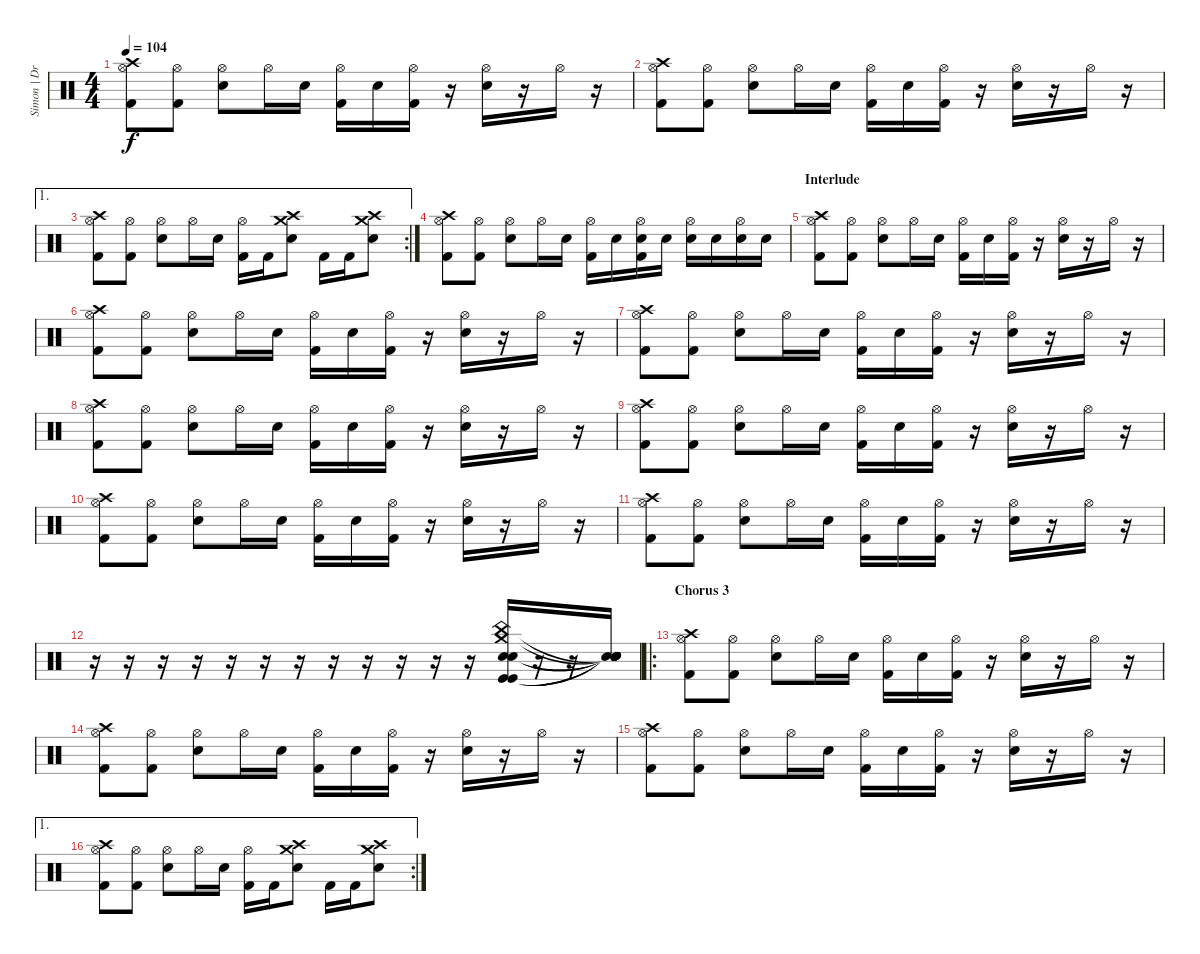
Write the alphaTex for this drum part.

\track ("Simon | Drums" "Simon | Dr") {instrument percussion}
\staff {score}
\articulation defaults
\ts (4 4)
\tempo 104
\clef neutral
\ks c
("Crash high (hit)" "Hi-Hat (open)" "Kick (hit) 2").8{dy f} ("Hi-Hat (open)" "Kick (hit) 2").8 ("Hi-Hat (open)" "Electric Snare (hit)").8 "Hi-Hat (open)".16 "Electric Snare (hit)".16 ("Hi-Hat (open)" "Kick (hit) 2").16 "Electric Snare (hit)".16 ("Hi-Hat (open)" "Kick (hit) 2").16 r.16 ("Hi-Hat (open)" "Electric Snare (hit)").16 r.16 "Hi-Hat (open)".16 r.16 |
("Crash high (hit)" "Hi-Hat (open)" "Kick (hit) 2").8 ("Hi-Hat (open)" "Kick (hit) 2").8 ("Hi-Hat (open)" "Electric Snare (hit)").8 "Hi-Hat (open)".16 "Electric Snare (hit)".16 ("Hi-Hat (open)" "Kick (hit) 2").16 "Electric Snare (hit)".16 ("Hi-Hat (open)" "Kick (hit) 2").16 r.16 ("Hi-Hat (open)" "Electric Snare (hit)").16 r.16 "Hi-Hat (open)".16 r.16 |
\ae 1
\rc 2
("Crash high (hit)" "Hi-Hat (open)" "Kick (hit) 2").8 ("Hi-Hat (open)" "Kick (hit) 2").8 ("Hi-Hat (open)" "Electric Snare (hit)").8 "Hi-Hat (open)".16 "Electric Snare (hit)".16 ("Hi-Hat (open)" "Kick (hit) 2").16 "Kick (hit) 2".16 ("Crash high (hit)" "Crash medium (hit)" "Electric Snare (hit)").8 "Kick (hit) 2".16 "Kick (hit) 2".16 ("Crash high (hit)" "Crash medium (hit)" "Electric Snare (hit)").8 |
("Crash high (hit)" "Hi-Hat (open)" "Kick (hit) 2").8 ("Hi-Hat (open)" "Kick (hit) 2").8 ("Hi-Hat (open)" "Electric Snare (hit)").8 "Hi-Hat (open)".16 "Electric Snare (hit)".16 ("Hi-Hat (open)" "Kick (hit) 2").16 "Electric Snare (hit)".16 ("Hi-Hat (open)" "Electric Snare (hit)" "Kick (hit) 2").16 "Electric Snare (hit)".16 ("Hi-Hat (open)" "Electric Snare (hit)").16 "Electric Snare (hit)".16 ("Hi-Hat (open)" "Electric Snare (hit)").16 "Electric Snare (hit)".16 |
\section ("" "Interlude")
("Crash high (hit)" "Hi-Hat (open)" "Kick (hit) 2").8 ("Hi-Hat (open)" "Kick (hit) 2").8 ("Hi-Hat (open)" "Electric Snare (hit)").8 "Hi-Hat (open)".16 "Electric Snare (hit)".16 ("Hi-Hat (open)" "Kick (hit) 2").16 "Electric Snare (hit)".16 ("Hi-Hat (open)" "Kick (hit) 2").16 r.16 ("Hi-Hat (open)" "Electric Snare (hit)").16 r.16 "Hi-Hat (open)".16 r.16 |
("Crash high (hit)" "Hi-Hat (open)" "Kick (hit) 2").8 ("Hi-Hat (open)" "Kick (hit) 2").8 ("Hi-Hat (open)" "Electric Snare (hit)").8 "Hi-Hat (open)".16 "Electric Snare (hit)".16 ("Hi-Hat (open)" "Kick (hit) 2").16 "Electric Snare (hit)".16 ("Hi-Hat (open)" "Kick (hit) 2").16 r.16 ("Hi-Hat (open)" "Electric Snare (hit)").16 r.16 "Hi-Hat (open)".16 r.16 |
("Crash high (hit)" "Hi-Hat (open)" "Kick (hit) 2").8 ("Hi-Hat (open)" "Kick (hit) 2").8 ("Hi-Hat (open)" "Electric Snare (hit)").8 "Hi-Hat (open)".16 "Electric Snare (hit)".16 ("Hi-Hat (open)" "Kick (hit) 2").16 "Electric Snare (hit)".16 ("Hi-Hat (open)" "Kick (hit) 2").16 r.16 ("Hi-Hat (open)" "Electric Snare (hit)").16 r.16 "Hi-Hat (open)".16 r.16 |
("Crash high (hit)" "Hi-Hat (open)" "Kick (hit) 2").8 ("Hi-Hat (open)" "Kick (hit) 2").8 ("Hi-Hat (open)" "Electric Snare (hit)").8 "Hi-Hat (open)".16 "Electric Snare (hit)".16 ("Hi-Hat (open)" "Kick (hit) 2").16 "Electric Snare (hit)".16 ("Hi-Hat (open)" "Kick (hit) 2").16 r.16 ("Hi-Hat (open)" "Electric Snare (hit)").16 r.16 "Hi-Hat (open)".16 r.16 |
("Crash high (hit)" "Hi-Hat (open)" "Kick (hit) 2").8 ("Hi-Hat (open)" "Kick (hit) 2").8 ("Hi-Hat (open)" "Electric Snare (hit)").8 "Hi-Hat (open)".16 "Electric Snare (hit)".16 ("Hi-Hat (open)" "Kick (hit) 2").16 "Electric Snare (hit)".16 ("Hi-Hat (open)" "Kick (hit) 2").16 r.16 ("Hi-Hat (open)" "Electric Snare (hit)").16 r.16 "Hi-Hat (open)".16 r.16 |
("Crash high (hit)" "Hi-Hat (open)" "Kick (hit) 2").8 ("Hi-Hat (open)" "Kick (hit) 2").8 ("Hi-Hat (open)" "Electric Snare (hit)").8 "Hi-Hat (open)".16 "Electric Snare (hit)".16 ("Hi-Hat (open)" "Kick (hit) 2").16 "Electric Snare (hit)".16 ("Hi-Hat (open)" "Kick (hit) 2").16 r.16 ("Hi-Hat (open)" "Electric Snare (hit)").16 r.16 "Hi-Hat (open)".16 r.16 |
("Crash high (hit)" "Hi-Hat (open)" "Kick (hit) 2").8 ("Hi-Hat (open)" "Kick (hit) 2").8 ("Hi-Hat (open)" "Electric Snare (hit)").8 "Hi-Hat (open)".16 "Electric Snare (hit)".16 ("Hi-Hat (open)" "Kick (hit) 2").16 "Electric Snare (hit)".16 ("Hi-Hat (open)" "Kick (hit) 2").16 r.16 ("Hi-Hat (open)" "Electric Snare (hit)").16 r.16 "Hi-Hat (open)".16 r.16 |
r.16 r.16 r.16 r.16 r.16 r.16 r.16 r.16 r.16 r.16 r.16 r.16 ("China (hit)" "Crash medium (hit)" "Snare (hit) 2" "Electric Snare (hit)" "Kick (hit)" "Kick (hit)").16 r.16 r.16 ("Snare (hit)"{t} "Snare (hit)"{t} "Snare (hit)"{t} "Snare (hit)"{t} "Snare (hit)"{t} "Snare (hit)"{t}).16 |
\ro
\section ("" "Chorus 3")
("Crash high (hit)" "Hi-Hat (open)" "Kick (hit) 2").8 ("Hi-Hat (open)" "Kick (hit) 2").8 ("Hi-Hat (open)" "Electric Snare (hit)").8 "Hi-Hat (open)".16 "Electric Snare (hit)".16 ("Hi-Hat (open)" "Kick (hit) 2").16 "Electric Snare (hit)".16 ("Hi-Hat (open)" "Kick (hit) 2").16 r.16 ("Hi-Hat (open)" "Electric Snare (hit)").16 r.16 "Hi-Hat (open)".16 r.16 |
("Crash high (hit)" "Hi-Hat (open)" "Kick (hit) 2").8 ("Hi-Hat (open)" "Kick (hit) 2").8 ("Hi-Hat (open)" "Electric Snare (hit)").8 "Hi-Hat (open)".16 "Electric Snare (hit)".16 ("Hi-Hat (open)" "Kick (hit) 2").16 "Electric Snare (hit)".16 ("Hi-Hat (open)" "Kick (hit) 2").16 r.16 ("Hi-Hat (open)" "Electric Snare (hit)").16 r.16 "Hi-Hat (open)".16 r.16 |
("Crash high (hit)" "Hi-Hat (open)" "Kick (hit) 2").8 ("Hi-Hat (open)" "Kick (hit) 2").8 ("Hi-Hat (open)" "Electric Snare (hit)").8 "Hi-Hat (open)".16 "Electric Snare (hit)".16 ("Hi-Hat (open)" "Kick (hit) 2").16 "Electric Snare (hit)".16 ("Hi-Hat (open)" "Kick (hit) 2").16 r.16 ("Hi-Hat (open)" "Electric Snare (hit)").16 r.16 "Hi-Hat (open)".16 r.16 |
\ae 1
\rc 2
("Crash high (hit)" "Hi-Hat (open)" "Kick (hit) 2").8 ("Hi-Hat (open)" "Kick (hit) 2").8 ("Hi-Hat (open)" "Electric Snare (hit)").8 "Hi-Hat (open)".16 "Electric Snare (hit)".16 ("Hi-Hat (open)" "Kick (hit) 2").16 "Kick (hit) 2".16 ("Crash high (hit)" "Crash medium (hit)" "Electric Snare (hit)").8 "Kick (hit) 2".16 "Kick (hit) 2".16 ("Crash high (hit)" "Crash medium (hit)" "Electric Snare (hit)").8
